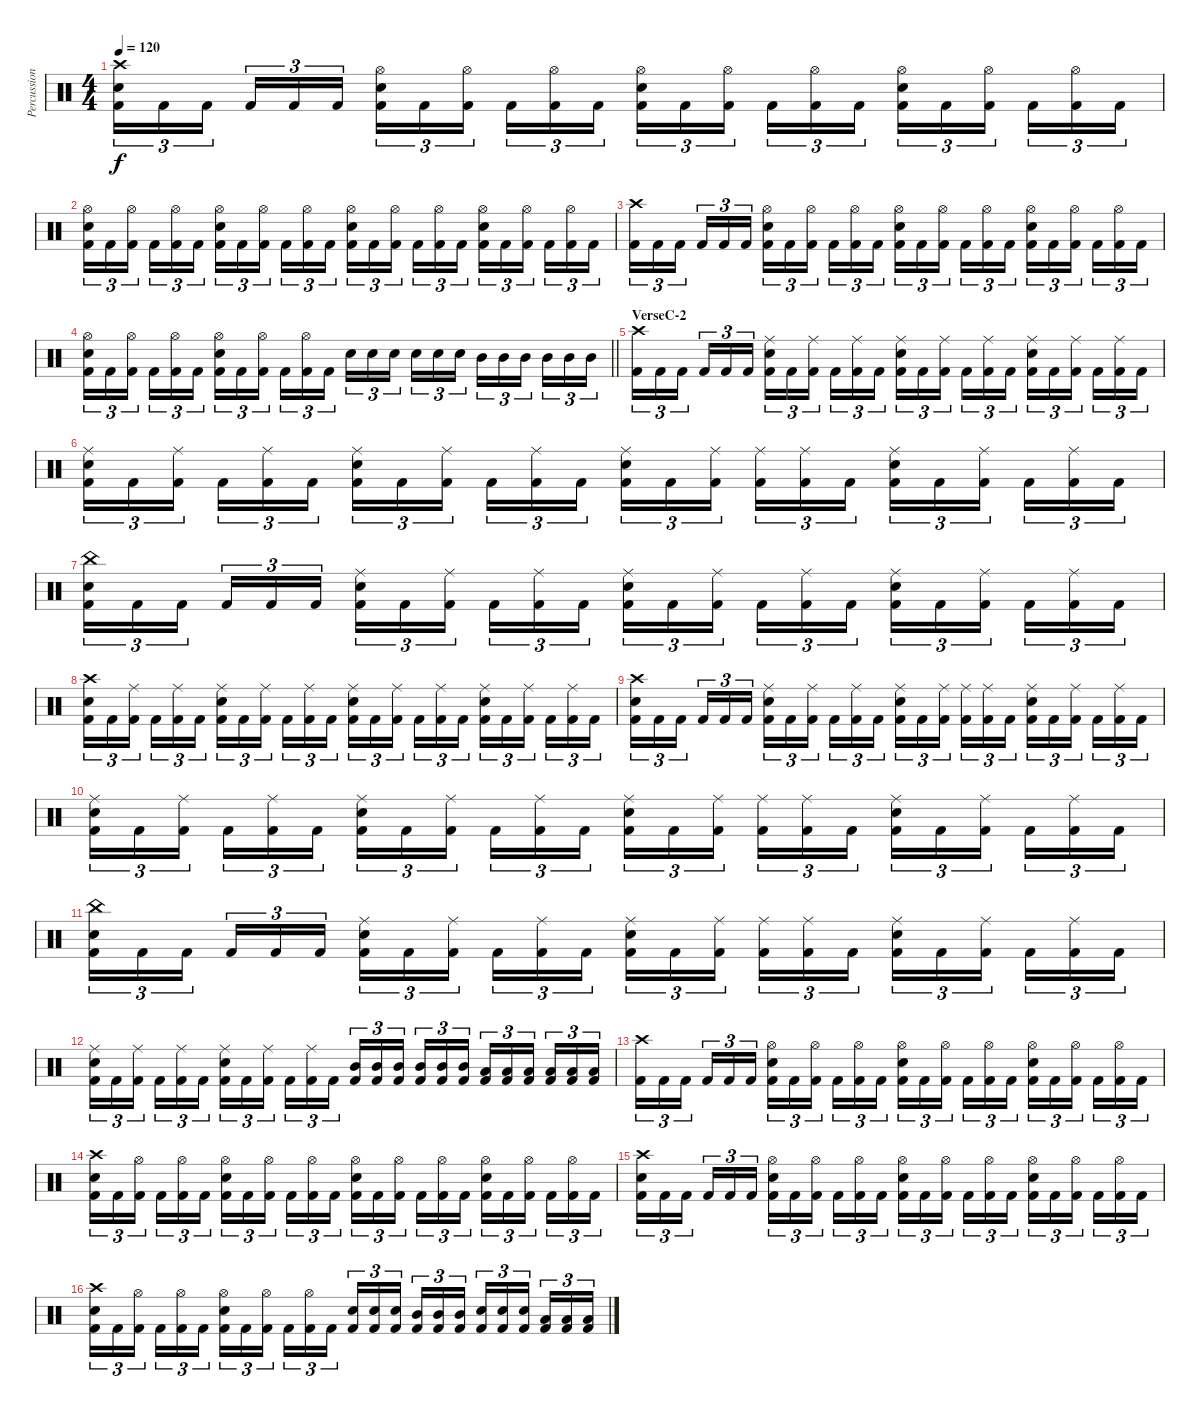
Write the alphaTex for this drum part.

\track ("Percussion" "Percussion") {instrument percussion}
\staff {score}
\articulation defaults
\ts (4 4)
\tempo 120
\clef neutral
\ks c
("Crash high (hit)" "Snare (hit) 2" "Kick (hit) 2").16{tu (3 2) dy f} "Kick (hit) 2".16{tu (3 2)} "Kick (hit) 2".16{tu (3 2) beam splitsecondary} "Kick (hit) 2".16{tu (3 2)} "Kick (hit) 2".16{tu (3 2)} "Kick (hit) 2".16{tu (3 2)} ("Hi-Hat (open)" "Snare (hit) 2" "Kick (hit) 2").16{tu (3 2)} "Kick (hit) 2".16{tu (3 2)} ("Hi-Hat (open)" "Kick (hit) 2").16{tu (3 2) beam splitsecondary} "Kick (hit) 2".16{tu (3 2)} ("Hi-Hat (open)" "Kick (hit) 2").16{tu (3 2)} "Kick (hit) 2".16{tu (3 2)} ("Hi-Hat (open)" "Snare (hit) 2" "Kick (hit) 2").16{tu (3 2)} "Kick (hit) 2".16{tu (3 2)} ("Hi-Hat (open)" "Kick (hit) 2").16{tu (3 2) beam splitsecondary} "Kick (hit) 2".16{tu (3 2)} ("Hi-Hat (open)" "Kick (hit) 2").16{tu (3 2)} "Kick (hit) 2".16{tu (3 2)} ("Hi-Hat (open)" "Snare (hit) 2" "Kick (hit) 2").16{tu (3 2)} "Kick (hit) 2".16{tu (3 2)} ("Hi-Hat (open)" "Kick (hit) 2").16{tu (3 2) beam splitsecondary} "Kick (hit) 2".16{tu (3 2)} ("Hi-Hat (open)" "Kick (hit) 2").16{tu (3 2)} "Kick (hit) 2".16{tu (3 2)} |
("Hi-Hat (open)" "Snare (hit) 2" "Kick (hit) 2").16{tu (3 2)} "Kick (hit) 2".16{tu (3 2)} ("Hi-Hat (open)" "Kick (hit) 2").16{tu (3 2) beam splitsecondary} "Kick (hit) 2".16{tu (3 2)} ("Hi-Hat (open)" "Kick (hit) 2").16{tu (3 2)} "Kick (hit) 2".16{tu (3 2)} ("Hi-Hat (open)" "Snare (hit) 2" "Kick (hit) 2").16{tu (3 2)} "Kick (hit) 2".16{tu (3 2)} ("Hi-Hat (open)" "Kick (hit) 2").16{tu (3 2) beam splitsecondary} "Kick (hit) 2".16{tu (3 2)} ("Hi-Hat (open)" "Kick (hit) 2").16{tu (3 2)} "Kick (hit) 2".16{tu (3 2)} ("Hi-Hat (open)" "Snare (hit) 2" "Kick (hit) 2").16{tu (3 2)} "Kick (hit) 2".16{tu (3 2)} ("Hi-Hat (open)" "Kick (hit) 2").16{tu (3 2) beam splitsecondary} "Kick (hit) 2".16{tu (3 2)} ("Hi-Hat (open)" "Kick (hit) 2").16{tu (3 2)} "Kick (hit) 2".16{tu (3 2)} ("Hi-Hat (open)" "Snare (hit) 2" "Kick (hit) 2").16{tu (3 2)} "Kick (hit) 2".16{tu (3 2)} ("Hi-Hat (open)" "Kick (hit) 2").16{tu (3 2) beam splitsecondary} "Kick (hit) 2".16{tu (3 2)} ("Hi-Hat (open)" "Kick (hit) 2").16{tu (3 2)} "Kick (hit) 2".16{tu (3 2)} |
("Crash high (hit)" "Kick (hit) 2").16{tu (3 2)} "Kick (hit) 2".16{tu (3 2)} "Kick (hit) 2".16{tu (3 2) beam splitsecondary} "Kick (hit) 2".16{tu (3 2)} "Kick (hit) 2".16{tu (3 2)} "Kick (hit) 2".16{tu (3 2)} ("Hi-Hat (open)" "Snare (hit) 2" "Kick (hit) 2").16{tu (3 2)} "Kick (hit) 2".16{tu (3 2)} ("Hi-Hat (open)" "Kick (hit) 2").16{tu (3 2) beam splitsecondary} "Kick (hit) 2".16{tu (3 2)} ("Hi-Hat (open)" "Kick (hit) 2").16{tu (3 2)} "Kick (hit) 2".16{tu (3 2)} ("Hi-Hat (open)" "Snare (hit) 2" "Kick (hit) 2").16{tu (3 2)} "Kick (hit) 2".16{tu (3 2)} ("Hi-Hat (open)" "Kick (hit) 2").16{tu (3 2) beam splitsecondary} "Kick (hit) 2".16{tu (3 2)} ("Hi-Hat (open)" "Kick (hit) 2").16{tu (3 2)} "Kick (hit) 2".16{tu (3 2)} ("Hi-Hat (open)" "Snare (hit) 2" "Kick (hit) 2").16{tu (3 2)} "Kick (hit) 2".16{tu (3 2)} ("Hi-Hat (open)" "Kick (hit) 2").16{tu (3 2) beam splitsecondary} "Kick (hit) 2".16{tu (3 2)} ("Hi-Hat (open)" "Kick (hit) 2").16{tu (3 2)} "Kick (hit) 2".16{tu (3 2)} |
\barLineRight lightlight
("Hi-Hat (open)" "Snare (hit) 2" "Kick (hit) 2").16{tu (3 2)} "Kick (hit) 2".16{tu (3 2)} ("Hi-Hat (open)" "Kick (hit) 2").16{tu (3 2) beam splitsecondary} "Kick (hit) 2".16{tu (3 2)} ("Hi-Hat (open)" "Kick (hit) 2").16{tu (3 2)} "Kick (hit) 2".16{tu (3 2)} ("Hi-Hat (open)" "Snare (hit) 2" "Kick (hit) 2").16{tu (3 2)} "Kick (hit) 2".16{tu (3 2)} ("Hi-Hat (open)" "Kick (hit) 2").16{tu (3 2) beam splitsecondary} "Kick (hit) 2".16{tu (3 2)} ("Hi-Hat (open)" "Kick (hit) 2").16{tu (3 2)} "Kick (hit) 2".16{tu (3 2)} "Snare (hit) 2".16{tu (3 2)} "Snare (hit) 2".16{tu (3 2)} "Snare (hit) 2".16{tu (3 2) beam splitsecondary} "Snare (hit) 2".16{tu (3 2)} "Snare (hit) 2".16{tu (3 2)} "Snare (hit) 2".16{tu (3 2)} "Mid Tom (hit)".16{tu (3 2)} "Mid Tom (hit)".16{tu (3 2)} "Mid Tom (hit)".16{tu (3 2) beam splitsecondary} "Mid Tom (hit)".16{tu (3 2)} "Mid Tom (hit)".16{tu (3 2)} "Mid Tom (hit)".16{tu (3 2)} |
\section ("" "VerseC-2")
("Crash high (hit)" "Kick (hit) 2").16{tu (3 2)} "Kick (hit) 2".16{tu (3 2)} "Kick (hit) 2".16{tu (3 2) beam splitsecondary} "Kick (hit) 2".16{tu (3 2)} "Kick (hit) 2".16{tu (3 2)} "Kick (hit) 2".16{tu (3 2)} ("Ride (middle)" "Snare (hit) 2" "Kick (hit) 2").16{tu (3 2)} "Kick (hit) 2".16{tu (3 2)} ("Ride (middle)" "Kick (hit) 2").16{tu (3 2) beam splitsecondary} "Kick (hit) 2".16{tu (3 2)} ("Ride (middle)" "Kick (hit) 2").16{tu (3 2)} "Kick (hit) 2".16{tu (3 2)} ("Ride (middle)" "Snare (hit) 2" "Kick (hit) 2").16{tu (3 2)} "Kick (hit) 2".16{tu (3 2)} ("Ride (middle)" "Kick (hit) 2").16{tu (3 2) beam splitsecondary} "Kick (hit) 2".16{tu (3 2)} ("Ride (middle)" "Kick (hit) 2").16{tu (3 2)} "Kick (hit) 2".16{tu (3 2)} ("Ride (middle)" "Snare (hit) 2" "Kick (hit) 2").16{tu (3 2)} "Kick (hit) 2".16{tu (3 2)} ("Ride (middle)" "Kick (hit) 2").16{tu (3 2) beam splitsecondary} "Kick (hit) 2".16{tu (3 2)} ("Ride (middle)" "Kick (hit) 2").16{tu (3 2)} "Kick (hit) 2".16{tu (3 2)} |
("Ride (middle)" "Snare (hit) 2" "Kick (hit) 2").16{tu (3 2)} "Kick (hit) 2".16{tu (3 2)} ("Ride (middle)" "Kick (hit) 2").16{tu (3 2) beam splitsecondary} "Kick (hit) 2".16{tu (3 2)} ("Ride (middle)" "Kick (hit) 2").16{tu (3 2)} "Kick (hit) 2".16{tu (3 2)} ("Ride (middle)" "Snare (hit) 2" "Kick (hit) 2").16{tu (3 2)} "Kick (hit) 2".16{tu (3 2)} ("Ride (middle)" "Kick (hit) 2").16{tu (3 2) beam splitsecondary} "Kick (hit) 2".16{tu (3 2)} ("Ride (middle)" "Kick (hit) 2").16{tu (3 2)} "Kick (hit) 2".16{tu (3 2)} ("Ride (middle)" "Snare (hit) 2" "Kick (hit) 2").16{tu (3 2)} "Kick (hit) 2".16{tu (3 2)} ("Ride (middle)" "Kick (hit) 2").16{tu (3 2) beam splitsecondary} ("Ride (middle)" "Kick (hit) 2").16{tu (3 2)} ("Ride (middle)" "Kick (hit) 2").16{tu (3 2)} "Kick (hit) 2".16{tu (3 2)} ("Ride (middle)" "Snare (hit) 2" "Kick (hit) 2").16{tu (3 2)} "Kick (hit) 2".16{tu (3 2)} ("Ride (middle)" "Kick (hit) 2").16{tu (3 2) beam splitsecondary} "Kick (hit) 2".16{tu (3 2)} ("Ride (middle)" "Kick (hit) 2").16{tu (3 2)} "Kick (hit) 2".16{tu (3 2)} |
("China (hit)" "Snare (hit) 2" "Kick (hit) 2").16{tu (3 2)} "Kick (hit) 2".16{tu (3 2)} "Kick (hit) 2".16{tu (3 2) beam splitsecondary} "Kick (hit) 2".16{tu (3 2)} "Kick (hit) 2".16{tu (3 2)} "Kick (hit) 2".16{tu (3 2)} ("Ride (middle)" "Snare (hit) 2" "Kick (hit) 2").16{tu (3 2)} "Kick (hit) 2".16{tu (3 2)} ("Ride (middle)" "Kick (hit) 2").16{tu (3 2) beam splitsecondary} "Kick (hit) 2".16{tu (3 2)} ("Ride (middle)" "Kick (hit) 2").16{tu (3 2)} "Kick (hit) 2".16{tu (3 2)} ("Ride (middle)" "Snare (hit) 2" "Kick (hit) 2").16{tu (3 2)} "Kick (hit) 2".16{tu (3 2)} ("Ride (middle)" "Kick (hit) 2").16{tu (3 2) beam splitsecondary} "Kick (hit) 2".16{tu (3 2)} ("Ride (middle)" "Kick (hit) 2").16{tu (3 2)} "Kick (hit) 2".16{tu (3 2)} ("Ride (middle)" "Snare (hit) 2" "Kick (hit) 2").16{tu (3 2)} "Kick (hit) 2".16{tu (3 2)} ("Ride (middle)" "Kick (hit) 2").16{tu (3 2) beam splitsecondary} "Kick (hit) 2".16{tu (3 2)} ("Ride (middle)" "Kick (hit) 2").16{tu (3 2)} "Kick (hit) 2".16{tu (3 2)} |
("Crash high (hit)" "Snare (hit) 2" "Kick (hit) 2").16{tu (3 2)} "Kick (hit) 2".16{tu (3 2)} ("Ride (middle)" "Kick (hit) 2").16{tu (3 2) beam splitsecondary} "Kick (hit) 2".16{tu (3 2)} ("Ride (middle)" "Kick (hit) 2").16{tu (3 2)} "Kick (hit) 2".16{tu (3 2)} ("Ride (middle)" "Snare (hit) 2" "Kick (hit) 2").16{tu (3 2)} "Kick (hit) 2".16{tu (3 2)} ("Ride (middle)" "Kick (hit) 2").16{tu (3 2) beam splitsecondary} "Kick (hit) 2".16{tu (3 2)} ("Ride (middle)" "Kick (hit) 2").16{tu (3 2)} "Kick (hit) 2".16{tu (3 2)} ("Ride (middle)" "Snare (hit) 2" "Kick (hit) 2").16{tu (3 2)} "Kick (hit) 2".16{tu (3 2)} ("Ride (middle)" "Kick (hit) 2").16{tu (3 2) beam splitsecondary} "Kick (hit) 2".16{tu (3 2)} ("Ride (middle)" "Kick (hit) 2").16{tu (3 2)} "Kick (hit) 2".16{tu (3 2)} ("Ride (middle)" "Snare (hit) 2" "Kick (hit) 2").16{tu (3 2)} "Kick (hit) 2".16{tu (3 2)} ("Ride (middle)" "Kick (hit) 2").16{tu (3 2) beam splitsecondary} "Kick (hit) 2".16{tu (3 2)} ("Ride (middle)" "Kick (hit) 2").16{tu (3 2)} "Kick (hit) 2".16{tu (3 2)} |
("Crash high (hit)" "Snare (hit) 2" "Kick (hit) 2").16{tu (3 2)} "Kick (hit) 2".16{tu (3 2)} "Kick (hit) 2".16{tu (3 2) beam splitsecondary} "Kick (hit) 2".16{tu (3 2)} "Kick (hit) 2".16{tu (3 2)} "Kick (hit) 2".16{tu (3 2)} ("Ride (middle)" "Snare (hit) 2" "Kick (hit) 2").16{tu (3 2)} "Kick (hit) 2".16{tu (3 2)} ("Ride (middle)" "Kick (hit) 2").16{tu (3 2) beam splitsecondary} "Kick (hit) 2".16{tu (3 2)} ("Ride (middle)" "Kick (hit) 2").16{tu (3 2)} "Kick (hit) 2".16{tu (3 2)} ("Ride (middle)" "Snare (hit) 2" "Kick (hit) 2").16{tu (3 2)} "Kick (hit) 2".16{tu (3 2)} ("Ride (middle)" "Kick (hit) 2").16{tu (3 2) beam splitsecondary} ("Ride (middle)" "Kick (hit) 2").16{tu (3 2)} ("Ride (middle)" "Kick (hit) 2").16{tu (3 2)} "Kick (hit) 2".16{tu (3 2)} ("Ride (middle)" "Snare (hit) 2" "Kick (hit) 2").16{tu (3 2)} "Kick (hit) 2".16{tu (3 2)} ("Ride (middle)" "Kick (hit) 2").16{tu (3 2) beam splitsecondary} "Kick (hit) 2".16{tu (3 2)} ("Ride (middle)" "Kick (hit) 2").16{tu (3 2)} "Kick (hit) 2".16{tu (3 2)} |
("Ride (middle)" "Snare (hit) 2" "Kick (hit) 2").16{tu (3 2)} "Kick (hit) 2".16{tu (3 2)} ("Ride (middle)" "Kick (hit) 2").16{tu (3 2) beam splitsecondary} "Kick (hit) 2".16{tu (3 2)} ("Ride (middle)" "Kick (hit) 2").16{tu (3 2)} "Kick (hit) 2".16{tu (3 2)} ("Ride (middle)" "Snare (hit) 2" "Kick (hit) 2").16{tu (3 2)} "Kick (hit) 2".16{tu (3 2)} ("Ride (middle)" "Kick (hit) 2").16{tu (3 2) beam splitsecondary} "Kick (hit) 2".16{tu (3 2)} ("Ride (middle)" "Kick (hit) 2").16{tu (3 2)} "Kick (hit) 2".16{tu (3 2)} ("Ride (middle)" "Snare (hit) 2" "Kick (hit) 2").16{tu (3 2)} "Kick (hit) 2".16{tu (3 2)} ("Ride (middle)" "Kick (hit) 2").16{tu (3 2) beam splitsecondary} ("Ride (middle)" "Kick (hit) 2").16{tu (3 2)} ("Ride (middle)" "Kick (hit) 2").16{tu (3 2)} "Kick (hit) 2".16{tu (3 2)} ("Ride (middle)" "Snare (hit) 2" "Kick (hit) 2").16{tu (3 2)} "Kick (hit) 2".16{tu (3 2)} ("Ride (middle)" "Kick (hit) 2").16{tu (3 2) beam splitsecondary} "Kick (hit) 2".16{tu (3 2)} ("Ride (middle)" "Kick (hit) 2").16{tu (3 2)} "Kick (hit) 2".16{tu (3 2)} |
("China (hit)" "Snare (hit) 2" "Kick (hit) 2").16{tu (3 2)} "Kick (hit) 2".16{tu (3 2)} "Kick (hit) 2".16{tu (3 2) beam splitsecondary} "Kick (hit) 2".16{tu (3 2)} "Kick (hit) 2".16{tu (3 2)} "Kick (hit) 2".16{tu (3 2)} ("Ride (middle)" "Snare (hit) 2" "Kick (hit) 2").16{tu (3 2)} "Kick (hit) 2".16{tu (3 2)} ("Ride (middle)" "Kick (hit) 2").16{tu (3 2) beam splitsecondary} "Kick (hit) 2".16{tu (3 2)} ("Ride (middle)" "Kick (hit) 2").16{tu (3 2)} "Kick (hit) 2".16{tu (3 2)} ("Ride (middle)" "Snare (hit) 2" "Kick (hit) 2").16{tu (3 2)} "Kick (hit) 2".16{tu (3 2)} ("Ride (middle)" "Kick (hit) 2").16{tu (3 2) beam splitsecondary} ("Ride (middle)" "Kick (hit) 2").16{tu (3 2)} ("Ride (middle)" "Kick (hit) 2").16{tu (3 2)} "Kick (hit) 2".16{tu (3 2)} ("Ride (middle)" "Snare (hit) 2" "Kick (hit) 2").16{tu (3 2)} "Kick (hit) 2".16{tu (3 2)} ("Ride (middle)" "Kick (hit) 2").16{tu (3 2) beam splitsecondary} "Kick (hit) 2".16{tu (3 2)} ("Ride (middle)" "Kick (hit) 2").16{tu (3 2)} "Kick (hit) 2".16{tu (3 2)} |
("Ride (middle)" "Snare (hit) 2" "Kick (hit) 2").16{tu (3 2)} "Kick (hit) 2".16{tu (3 2)} ("Ride (middle)" "Kick (hit) 2").16{tu (3 2) beam splitsecondary} "Kick (hit) 2".16{tu (3 2)} ("Ride (middle)" "Kick (hit) 2").16{tu (3 2)} "Kick (hit) 2".16{tu (3 2)} ("Ride (middle)" "Snare (hit) 2" "Kick (hit) 2").16{tu (3 2)} "Kick (hit) 2".16{tu (3 2)} ("Ride (middle)" "Kick (hit) 2").16{tu (3 2) beam splitsecondary} "Kick (hit) 2".16{tu (3 2)} ("Ride (middle)" "Kick (hit) 2").16{tu (3 2)} "Kick (hit) 2".16{tu (3 2)} ("Mid Tom (hit)" "Kick (hit) 2").16{tu (3 2)} ("Mid Tom (hit)" "Kick (hit) 2").16{tu (3 2)} ("Mid Tom (hit)" "Kick (hit) 2").16{tu (3 2) beam splitsecondary} ("Mid Tom (hit)" "Kick (hit) 2").16{tu (3 2)} ("Mid Tom (hit)" "Kick (hit) 2").16{tu (3 2)} ("Mid Tom (hit)" "Kick (hit) 2").16{tu (3 2)} ("Low Tom (hit)" "Kick (hit) 2").16{tu (3 2)} ("Low Tom (hit)" "Kick (hit) 2").16{tu (3 2)} ("Low Tom (hit)" "Kick (hit) 2").16{tu (3 2) beam splitsecondary} ("Low Tom (hit)" "Kick (hit) 2").16{tu (3 2)} ("Low Tom (hit)" "Kick (hit) 2").16{tu (3 2)} ("Low Tom (hit)" "Kick (hit) 2").16{tu (3 2)} |
("Crash high (hit)" "Kick (hit) 2").16{tu (3 2)} "Kick (hit) 2".16{tu (3 2)} "Kick (hit) 2".16{tu (3 2) beam splitsecondary} "Kick (hit) 2".16{tu (3 2)} "Kick (hit) 2".16{tu (3 2)} "Kick (hit) 2".16{tu (3 2)} ("Hi-Hat (open)" "Snare (hit) 2" "Kick (hit) 2").16{tu (3 2)} "Kick (hit) 2".16{tu (3 2)} ("Hi-Hat (open)" "Kick (hit) 2").16{tu (3 2) beam splitsecondary} "Kick (hit) 2".16{tu (3 2)} ("Hi-Hat (open)" "Kick (hit) 2").16{tu (3 2)} "Kick (hit) 2".16{tu (3 2)} ("Hi-Hat (open)" "Snare (hit) 2" "Kick (hit) 2").16{tu (3 2)} "Kick (hit) 2".16{tu (3 2)} ("Hi-Hat (open)" "Kick (hit) 2").16{tu (3 2) beam splitsecondary} "Kick (hit) 2".16{tu (3 2)} ("Hi-Hat (open)" "Kick (hit) 2").16{tu (3 2)} "Kick (hit) 2".16{tu (3 2)} ("Hi-Hat (open)" "Snare (hit) 2" "Kick (hit) 2").16{tu (3 2)} "Kick (hit) 2".16{tu (3 2)} ("Hi-Hat (open)" "Kick (hit) 2").16{tu (3 2) beam splitsecondary} "Kick (hit) 2".16{tu (3 2)} ("Hi-Hat (open)" "Kick (hit) 2").16{tu (3 2)} "Kick (hit) 2".16{tu (3 2)} |
("Crash high (hit)" "Snare (hit) 2" "Kick (hit) 2").16{tu (3 2)} "Kick (hit) 2".16{tu (3 2)} ("Hi-Hat (open)" "Kick (hit) 2").16{tu (3 2) beam splitsecondary} "Kick (hit) 2".16{tu (3 2)} ("Hi-Hat (open)" "Kick (hit) 2").16{tu (3 2)} "Kick (hit) 2".16{tu (3 2)} ("Hi-Hat (open)" "Snare (hit) 2" "Kick (hit) 2").16{tu (3 2)} "Kick (hit) 2".16{tu (3 2)} ("Hi-Hat (open)" "Kick (hit) 2").16{tu (3 2) beam splitsecondary} "Kick (hit) 2".16{tu (3 2)} ("Hi-Hat (open)" "Kick (hit) 2").16{tu (3 2)} "Kick (hit) 2".16{tu (3 2)} ("Hi-Hat (open)" "Snare (hit) 2" "Kick (hit) 2").16{tu (3 2)} "Kick (hit) 2".16{tu (3 2)} ("Hi-Hat (open)" "Kick (hit) 2").16{tu (3 2) beam splitsecondary} "Kick (hit) 2".16{tu (3 2)} ("Hi-Hat (open)" "Kick (hit) 2").16{tu (3 2)} "Kick (hit) 2".16{tu (3 2)} ("Hi-Hat (open)" "Snare (hit) 2" "Kick (hit) 2").16{tu (3 2)} "Kick (hit) 2".16{tu (3 2)} ("Hi-Hat (open)" "Kick (hit) 2").16{tu (3 2) beam splitsecondary} "Kick (hit) 2".16{tu (3 2)} ("Hi-Hat (open)" "Kick (hit) 2").16{tu (3 2)} "Kick (hit) 2".16{tu (3 2)} |
("Crash high (hit)" "Snare (hit) 2" "Kick (hit) 2").16{tu (3 2)} "Kick (hit) 2".16{tu (3 2)} "Kick (hit) 2".16{tu (3 2) beam splitsecondary} "Kick (hit) 2".16{tu (3 2)} "Kick (hit) 2".16{tu (3 2)} "Kick (hit) 2".16{tu (3 2)} ("Hi-Hat (open)" "Snare (hit) 2" "Kick (hit) 2").16{tu (3 2)} "Kick (hit) 2".16{tu (3 2)} ("Hi-Hat (open)" "Kick (hit) 2").16{tu (3 2) beam splitsecondary} "Kick (hit) 2".16{tu (3 2)} ("Hi-Hat (open)" "Kick (hit) 2").16{tu (3 2)} "Kick (hit) 2".16{tu (3 2)} ("Hi-Hat (open)" "Snare (hit) 2" "Kick (hit) 2").16{tu (3 2)} "Kick (hit) 2".16{tu (3 2)} ("Hi-Hat (open)" "Kick (hit) 2").16{tu (3 2) beam splitsecondary} "Kick (hit) 2".16{tu (3 2)} ("Hi-Hat (open)" "Kick (hit) 2").16{tu (3 2)} "Kick (hit) 2".16{tu (3 2)} ("Hi-Hat (open)" "Snare (hit) 2" "Kick (hit) 2").16{tu (3 2)} "Kick (hit) 2".16{tu (3 2)} ("Hi-Hat (open)" "Kick (hit) 2").16{tu (3 2) beam splitsecondary} "Kick (hit) 2".16{tu (3 2)} ("Hi-Hat (open)" "Kick (hit) 2").16{tu (3 2)} "Kick (hit) 2".16{tu (3 2)} |
("Crash high (hit)" "Snare (hit) 2" "Kick (hit) 2").16{tu (3 2)} "Kick (hit) 2".16{tu (3 2)} ("Hi-Hat (open)" "Kick (hit) 2").16{tu (3 2) beam splitsecondary} "Kick (hit) 2".16{tu (3 2)} ("Hi-Hat (open)" "Kick (hit) 2").16{tu (3 2)} "Kick (hit) 2".16{tu (3 2)} ("Hi-Hat (open)" "Snare (hit) 2" "Kick (hit) 2").16{tu (3 2)} "Kick (hit) 2".16{tu (3 2)} ("Hi-Hat (open)" "Kick (hit) 2").16{tu (3 2) beam splitsecondary} "Kick (hit) 2".16{tu (3 2)} ("Hi-Hat (open)" "Kick (hit) 2").16{tu (3 2)} "Kick (hit) 2".16{tu (3 2)} ("Snare (hit) 2" "Kick (hit) 2").16{tu (3 2)} ("Snare (hit) 2" "Kick (hit) 2").16{tu (3 2)} ("Snare (hit) 2" "Kick (hit) 2").16{tu (3 2) beam splitsecondary} ("Mid Tom (hit)" "Kick (hit) 2").16{tu (3 2)} ("Mid Tom (hit)" "Kick (hit) 2").16{tu (3 2)} ("Mid Tom (hit)" "Kick (hit) 2").16{tu (3 2)} ("Snare (hit) 2" "Kick (hit) 2").16{tu (3 2)} ("Snare (hit) 2" "Kick (hit) 2").16{tu (3 2)} ("Snare (hit) 2" "Kick (hit) 2").16{tu (3 2) beam splitsecondary} ("Low Tom (hit)" "Kick (hit) 2").16{tu (3 2)} ("Low Tom (hit)" "Kick (hit) 2").16{tu (3 2)} ("Low Tom (hit)" "Kick (hit) 2").16{tu (3 2)}
